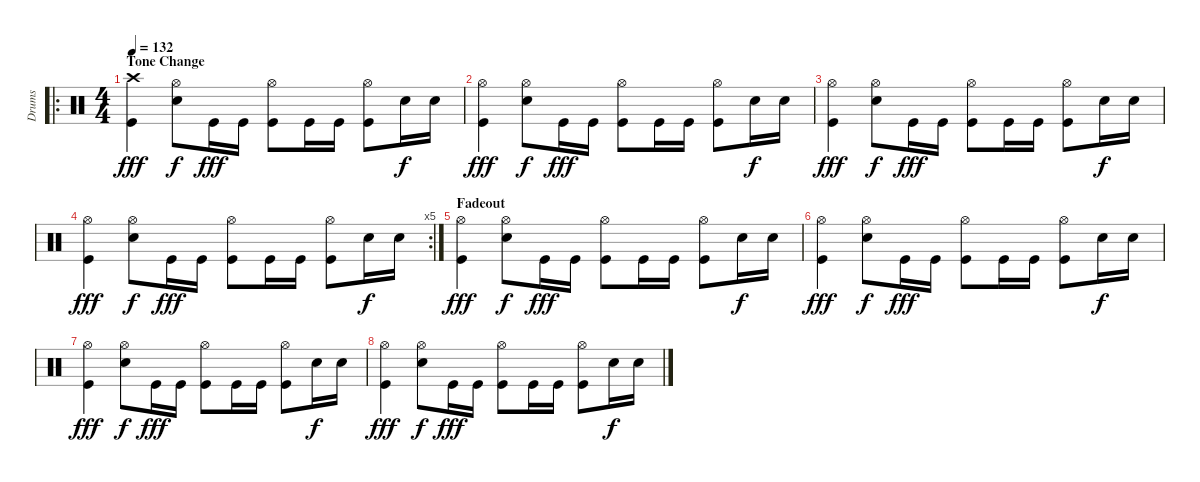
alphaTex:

\track ("Drums" "Drums") {instrument percussion}
\staff {score}
\articulation defaults
\ro
\ts (4 4)
\section ("" "Tone Change")
\tempo 132
\clef neutral
\ks c
("Crash high (hit)" "Kick (hit)").4{dy fff} ("Hi-Hat (open)" "Snare (hit) 2").8{dy f} "Kick (hit)".16{dy fff} "Kick (hit)".16 ("Hi-Hat (open)" "Kick (hit)").8 "Kick (hit)".16 "Kick (hit)".16 ("Hi-Hat (open)" "Kick (hit)").8 "Snare (hit) 2".16{dy f} "Snare (hit) 2".16 |
("Hi-Hat (open)" "Kick (hit)").4{dy fff} ("Hi-Hat (open)" "Snare (hit) 2").8{dy f} "Kick (hit)".16{dy fff} "Kick (hit)".16 ("Hi-Hat (open)" "Kick (hit)").8 "Kick (hit)".16 "Kick (hit)".16 ("Hi-Hat (open)" "Kick (hit)").8 "Snare (hit) 2".16{dy f} "Snare (hit) 2".16 |
("Hi-Hat (open)" "Kick (hit)").4{dy fff} ("Hi-Hat (open)" "Snare (hit) 2").8{dy f} "Kick (hit)".16{dy fff} "Kick (hit)".16 ("Hi-Hat (open)" "Kick (hit)").8 "Kick (hit)".16 "Kick (hit)".16 ("Hi-Hat (open)" "Kick (hit)").8 "Snare (hit) 2".16{dy f} "Snare (hit) 2".16 |
\rc 5
("Hi-Hat (open)" "Kick (hit)").4{dy fff} ("Hi-Hat (open)" "Snare (hit) 2").8{dy f} "Kick (hit)".16{dy fff} "Kick (hit)".16 ("Hi-Hat (open)" "Kick (hit)").8 "Kick (hit)".16 "Kick (hit)".16 ("Hi-Hat (open)" "Kick (hit)").8 "Snare (hit) 2".16{dy f} "Snare (hit) 2".16 |
\section ("" "Fadeout")
("Hi-Hat (open)" "Kick (hit)").4{dy fff} ("Hi-Hat (open)" "Snare (hit) 2").8{dy f} "Kick (hit)".16{dy fff} "Kick (hit)".16 ("Hi-Hat (open)" "Kick (hit)").8 "Kick (hit)".16 "Kick (hit)".16 ("Hi-Hat (open)" "Kick (hit)").8 "Snare (hit) 2".16{dy f} "Snare (hit) 2".16 |
("Hi-Hat (open)" "Kick (hit)").4{dy fff} ("Hi-Hat (open)" "Snare (hit) 2").8{dy f} "Kick (hit)".16{dy fff} "Kick (hit)".16 ("Hi-Hat (open)" "Kick (hit)").8 "Kick (hit)".16 "Kick (hit)".16 ("Hi-Hat (open)" "Kick (hit)").8 "Snare (hit) 2".16{dy f} "Snare (hit) 2".16 |
("Hi-Hat (open)" "Kick (hit)").4{dy fff} ("Hi-Hat (open)" "Snare (hit) 2").8{dy f} "Kick (hit)".16{dy fff} "Kick (hit)".16 ("Hi-Hat (open)" "Kick (hit)").8 "Kick (hit)".16 "Kick (hit)".16 ("Hi-Hat (open)" "Kick (hit)").8 "Snare (hit) 2".16{dy f} "Snare (hit) 2".16 |
("Hi-Hat (open)" "Kick (hit)").4{dy fff} ("Hi-Hat (open)" "Snare (hit) 2").8{dy f} "Kick (hit)".16{dy fff} "Kick (hit)".16 ("Hi-Hat (open)" "Kick (hit)").8 "Kick (hit)".16 "Kick (hit)".16 ("Hi-Hat (open)" "Kick (hit)").8 "Snare (hit) 2".16{dy f} "Snare (hit) 2".16
